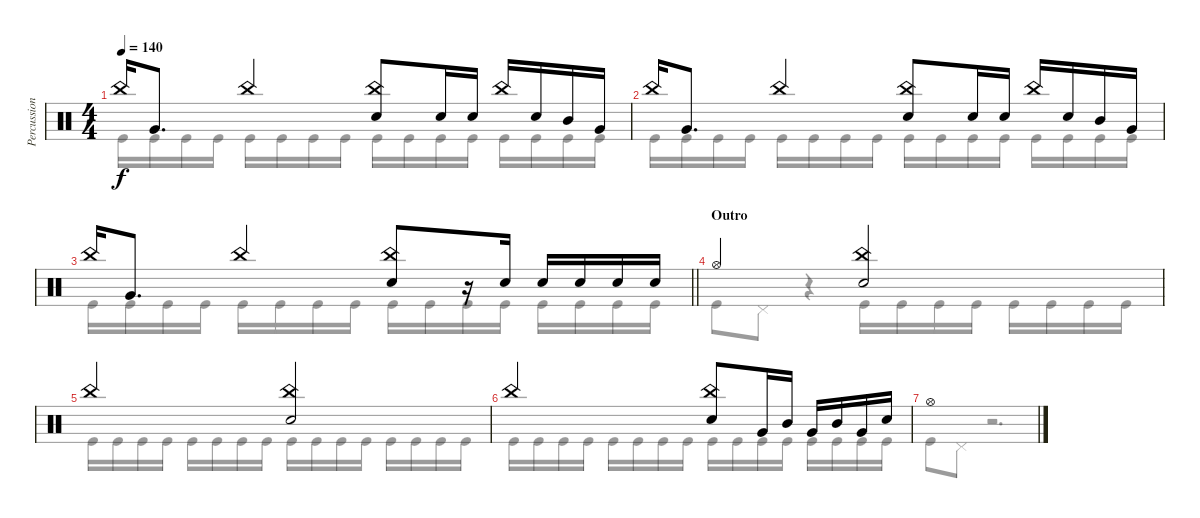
\track ("Percussion" "Percussion") {instrument percussion}
\staff {score}
\articulation defaults
\voice
\ts (4 4)
\tempo 140
\clef neutral
\ks c "China (hit)".16{dy f} "Very Low Tom (hit)".8{d} "China (hit)".4
("China (hit)" "Electric Snare (hit)").8 "Electric Snare (hit)".16 "Electric Snare (hit)".16 "China (hit)".16 "Electric Snare (hit)".16 "Mid Tom (hit)".16 "Very Low Tom (hit)".16 |
"China (hit)".16 "Very Low Tom (hit)".8{d} "China (hit)".4 ("China (hit)" "Electric Snare (hit)").8 "Electric Snare (hit)".16 "Electric Snare (hit)".16 "China (hit)".16 "Electric Snare (hit)".16 "Mid Tom (hit)".16 "Very Low Tom (hit)".16 |
\barLineRight lightlight "China (hit)".16 "Very Low Tom (hit)".8{d} "China (hit)".4
("China (hit)" "Electric Snare (hit)").8 r.16 "Electric Snare (hit)".16 "Electric Snare (hit)".16 "Electric Snare (hit)".16 "Electric Snare (hit)".16 "Electric Snare (hit)".16 |
\section ("" "Outro")
"Hi-Hat (open)".2 ("China (hit)" "Electric Snare (hit)").2 |
"China (hit)".2 ("China (hit)" "Electric Snare (hit)").2 |
"China (hit)".2 ("China (hit)" "Electric Snare (hit)").8 "Very Low Tom (hit)".16 "Mid Tom (hit)".16 "Very Low Tom (hit)".16 "Mid Tom (hit)".16 "Very Low Tom (hit)".16 "Electric Snare (hit)".16 |
"Hi-Hat (open)".1
\voice
\clef neutral
\ottava regular
\simile none
\ks c "Kick (hit)".16{dy f} "Kick (hit)".16 "Kick (hit)".16 "Kick (hit)".16 "Kick (hit)".16 "Kick (hit)".16 "Kick (hit)".16 "Kick (hit)".16 "Kick (hit)".16 "Kick (hit)".16 "Kick (hit)".16 "Kick (hit)".16 "Kick (hit)".16 "Kick (hit)".16 "Kick (hit)".16 "Kick (hit)".16
|
"Kick (hit)".16 "Kick (hit)".16 "Kick (hit)".16 "Kick (hit)".16 "Kick (hit)".16 "Kick (hit)".16 "Kick (hit)".16 "Kick (hit)".16 "Kick (hit)".16 "Kick (hit)".16 "Kick (hit)".16 "Kick (hit)".16 "Kick (hit)".16 "Kick (hit)".16 "Kick (hit)".16 "Kick (hit)".16 |
\barLineRight lightlight "Kick (hit)".16 "Kick (hit)".16 "Kick (hit)".16 "Kick (hit)".16 "Kick (hit)".16 "Kick (hit)".16 "Kick (hit)".16 "Kick (hit)".16 "Kick (hit)".16 "Kick (hit)".16 "Kick (hit)".16 "Kick (hit)".16 "Kick (hit)".16 "Kick (hit)".16 "Kick (hit)".16 "Kick (hit)".16
|
"Kick (hit)".8 "Pedal Hi-Hat (hit)".8 r.4 "Kick (hit)".16 "Kick (hit)".16 "Kick (hit)".16 "Kick (hit)".16 "Kick (hit)".16 "Kick (hit)".16 "Kick (hit)".16 "Kick (hit)".16 |
"Kick (hit)".16 "Kick (hit)".16 "Kick (hit)".16 "Kick (hit)".16 "Kick (hit)".16 "Kick (hit)".16 "Kick (hit)".16 "Kick (hit)".16 "Kick (hit)".16 "Kick (hit)".16 "Kick (hit)".16 "Kick (hit)".16 "Kick (hit)".16 "Kick (hit)".16 "Kick (hit)".16 "Kick (hit)".16 |
"Kick (hit)".16 "Kick (hit)".16 "Kick (hit)".16 "Kick (hit)".16 "Kick (hit)".16 "Kick (hit)".16 "Kick (hit)".16 "Kick (hit)".16 "Kick (hit)".16 "Kick (hit)".16 "Kick (hit)".16 "Kick (hit)".16 "Kick (hit)".16 "Kick (hit)".16 "Kick (hit)".16 "Kick (hit)".16 |
"Kick (hit)".8 "Pedal Hi-Hat (hit)".8 r.2{d}
